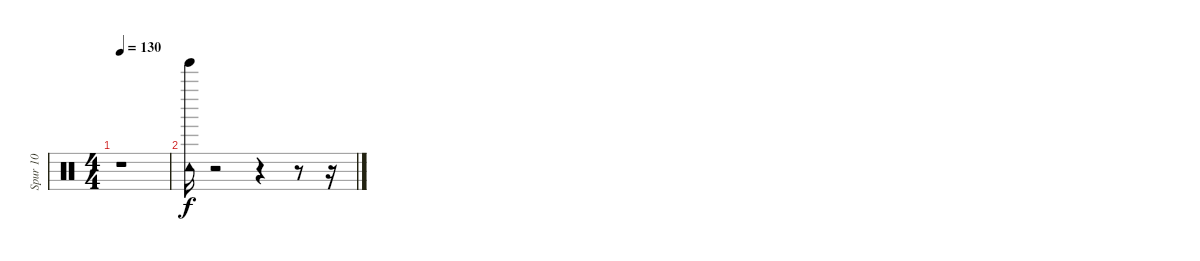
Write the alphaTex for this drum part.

\track ("Spur 10" "Spur 10") {instrument percussion}
\staff {score}
\articulation defaults
\ts (4 4)
\tempo 130
\clef neutral
\ks c
r.1{dy f} |
("Tambourine (hit)" "Tinkle Bell (hit)").16 r.2 r.4 r.8 r.16
